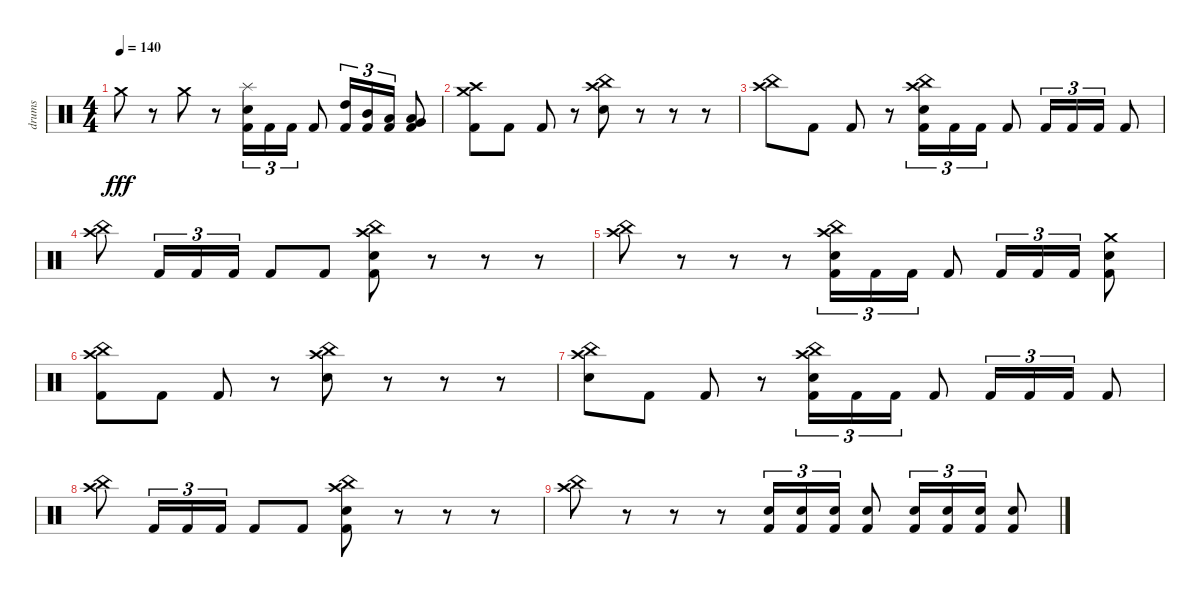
\track ("drums" "drums") {instrument percussion}
\staff {score}
\articulation defaults
\ts (4 4)
\tempo 140
\clef neutral
\ks c "Crash medium (hit)".8{dy fff}
r.8 "Crash medium (hit)".8 r.8 ("Splash (hit)" "Electric Snare (hit)" "Kick (hit) 2").16{tu (3 2)} "Kick (hit) 2".16{tu (3 2)} "Kick (hit) 2".16{tu (3 2)} "Kick (hit) 2".8 ("High Tom (hit)" "Kick (hit) 2").16{tu (3 2)} ("Mid Tom (hit)" "Kick (hit) 2").16{tu (3 2)} ("Low Tom (hit)" "Kick (hit) 2").16{tu (3 2)} ("Very Low Tom (hit)" "Low Floor Tom (hit)" "Kick (hit) 2").8 |
("Crash high (hit)" "Crash medium (hit)" "Kick (hit) 2").8 "Kick (hit) 2".8 "Kick (hit) 2".8 r.8 ("China (hit)" "Crash high (hit)" "Electric Snare (hit)").8 r.8 r.8 r.8 |
("China (hit)" "Crash high (hit)").8 "Kick (hit) 2".8 "Kick (hit) 2".8 r.8 ("China (hit)" "Crash high (hit)" "Electric Snare (hit)" "Kick (hit) 2").16{tu (3 2)} "Kick (hit) 2".16{tu (3 2)} "Kick (hit) 2".16{tu (3 2)} "Kick (hit) 2".8 "Kick (hit) 2".16{tu (3 2)} "Kick (hit) 2".16{tu (3 2)} "Kick (hit) 2".16{tu (3 2)} "Kick (hit) 2".8 |
("China (hit)" "Crash high (hit)").8 "Kick (hit) 2".16{tu (3 2)} "Kick (hit) 2".16{tu (3 2)} "Kick (hit) 2".16{tu (3 2)} "Kick (hit) 2".8 "Kick (hit) 2".8 ("China (hit)" "Crash high (hit)" "Electric Snare (hit)" "Kick (hit) 2").8 r.8 r.8 r.8 |
("China (hit)" "Crash high (hit)").8 r.8 r.8 r.8 ("China (hit)" "Crash high (hit)" "Electric Snare (hit)" "Kick (hit) 2").16{tu (3 2)} "Kick (hit) 2".16{tu (3 2)} "Kick (hit) 2".16{tu (3 2)} "Kick (hit) 2".8 "Kick (hit) 2".16{tu (3 2)} "Kick (hit) 2".16{tu (3 2)} "Kick (hit) 2".16{tu (3 2)} ("Crash medium (hit)" "Electric Snare (hit)" "Kick (hit) 2").8 |
("China (hit)" "Crash high (hit)" "Kick (hit) 2").8 "Kick (hit) 2".8 "Kick (hit) 2".8 r.8 ("China (hit)" "Crash high (hit)" "Electric Snare (hit)").8 r.8 r.8 r.8 |
("China (hit)" "Crash high (hit)" "Electric Snare (hit)").8 "Kick (hit) 2".8 "Kick (hit) 2".8 r.8 ("China (hit)" "Crash high (hit)" "Electric Snare (hit)" "Kick (hit) 2").16{tu (3 2)} "Kick (hit) 2".16{tu (3 2)} "Kick (hit) 2".16{tu (3 2)} "Kick (hit) 2".8 "Kick (hit) 2".16{tu (3 2)} "Kick (hit) 2".16{tu (3 2)} "Kick (hit) 2".16{tu (3 2)} "Kick (hit) 2".8 |
("China (hit)" "Crash high (hit)").8 "Kick (hit) 2".16{tu (3 2)} "Kick (hit) 2".16{tu (3 2)} "Kick (hit) 2".16{tu (3 2)} "Kick (hit) 2".8 "Kick (hit) 2".8 ("China (hit)" "Crash high (hit)" "Electric Snare (hit)" "Kick (hit) 2").8 r.8 r.8 r.8 |
("China (hit)" "Crash high (hit)").8 r.8 r.8 r.8 ("Electric Snare (hit)" "Kick (hit) 2").16{tu (3 2)} ("Electric Snare (hit)" "Kick (hit) 2").16{tu (3 2)} ("Electric Snare (hit)" "Kick (hit) 2").16{tu (3 2)} ("Electric Snare (hit)" "Kick (hit) 2").8 ("Electric Snare (hit)" "Kick (hit) 2").16{tu (3 2)} ("Electric Snare (hit)" "Kick (hit) 2").16{tu (3 2)} ("Electric Snare (hit)" "Kick (hit) 2").16{tu (3 2)} ("Electric Snare (hit)" "Kick (hit) 2").8
